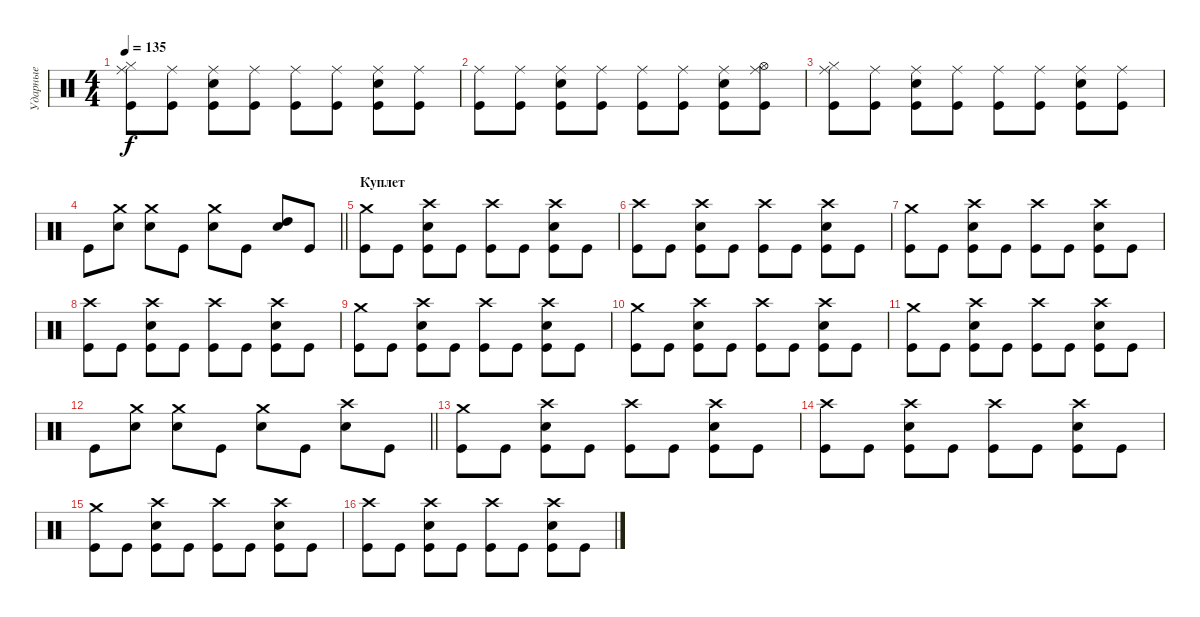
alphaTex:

\track ("Ударные" "Ударные") {instrument percussion}
\staff {score}
\articulation defaults
\ts (4 4)
\tempo 135
\clef neutral
\ks c
("Ride (middle)" "Hi-Hat (closed)" "Kick (hit)").8{dy f} ("Ride (middle)" "Kick (hit)").8 ("Ride (middle)" "Electric Snare (hit)" "Kick (hit)").8 ("Ride (middle)" "Kick (hit)").8 ("Ride (middle)" "Kick (hit)").8 ("Ride (middle)" "Kick (hit)").8 ("Ride (middle)" "Electric Snare (hit)" "Kick (hit)").8 ("Ride (middle)" "Kick (hit)").8 |
("Ride (middle)" "Kick (hit)").8 ("Ride (middle)" "Kick (hit)").8 ("Ride (middle)" "Electric Snare (hit)" "Kick (hit)").8 ("Ride (middle)" "Kick (hit)").8 ("Ride (middle)" "Kick (hit)").8 ("Ride (middle)" "Kick (hit)").8 ("Ride (middle)" "Electric Snare (hit)" "Kick (hit)").8 ("Ride (middle)" "Hi-Hat (open)" "Kick (hit)").8 |
("Ride (middle)" "Hi-Hat (closed)" "Kick (hit)").8 ("Ride (middle)" "Kick (hit)").8 ("Ride (middle)" "Electric Snare (hit)" "Kick (hit)").8 ("Ride (middle)" "Kick (hit)").8 ("Ride (middle)" "Kick (hit)").8 ("Ride (middle)" "Kick (hit)").8 ("Ride (middle)" "Electric Snare (hit)" "Kick (hit)").8 ("Ride (middle)" "Kick (hit)").8 |
\barLineRight lightlight "Kick (hit)".8
("Crash medium (hit)" "Electric Snare (hit)").8 ("Crash medium (hit)" "Electric Snare (hit)").8 "Kick (hit)".8 ("Crash medium (hit)" "Electric Snare (hit)").8 "Kick (hit)".8 ("High Tom (hit)" "Electric Snare (hit)").8 "Kick (hit)".8 |
\section ("" "Куплет")
("Crash medium (hit)" "Kick (hit)").8 "Kick (hit)".8 ("Crash high (hit)" "Electric Snare (hit)" "Kick (hit)").8 "Kick (hit)".8 ("Crash high (hit)" "Kick (hit)").8 "Kick (hit)".8 ("Crash high (hit)" "Electric Snare (hit)" "Kick (hit)").8 "Kick (hit)".8 |
("Crash high (hit)" "Kick (hit)").8 "Kick (hit)".8 ("Crash high (hit)" "Electric Snare (hit)" "Kick (hit)").8 "Kick (hit)".8 ("Crash high (hit)" "Kick (hit)").8 "Kick (hit)".8 ("Crash high (hit)" "Electric Snare (hit)" "Kick (hit)").8 "Kick (hit)".8 |
("Crash medium (hit)" "Kick (hit)").8 "Kick (hit)".8 ("Crash high (hit)" "Electric Snare (hit)" "Kick (hit)").8 "Kick (hit)".8 ("Crash high (hit)" "Kick (hit)").8 "Kick (hit)".8 ("Crash high (hit)" "Electric Snare (hit)" "Kick (hit)").8 "Kick (hit)".8 |
("Crash high (hit)" "Kick (hit)").8 "Kick (hit)".8 ("Crash high (hit)" "Electric Snare (hit)" "Kick (hit)").8 "Kick (hit)".8 ("Crash high (hit)" "Kick (hit)").8 "Kick (hit)".8 ("Crash high (hit)" "Electric Snare (hit)" "Kick (hit)").8 "Kick (hit)".8 |
("Crash medium (hit)" "Kick (hit)").8 "Kick (hit)".8 ("Crash high (hit)" "Electric Snare (hit)" "Kick (hit)").8 "Kick (hit)".8 ("Crash high (hit)" "Kick (hit)").8 "Kick (hit)".8 ("Crash high (hit)" "Electric Snare (hit)" "Kick (hit)").8 "Kick (hit)".8 |
("Crash medium (hit)" "Kick (hit)").8 "Kick (hit)".8 ("Crash high (hit)" "Electric Snare (hit)" "Kick (hit)").8 "Kick (hit)".8 ("Crash high (hit)" "Kick (hit)").8 "Kick (hit)".8 ("Crash high (hit)" "Electric Snare (hit)" "Kick (hit)").8 "Kick (hit)".8 |
("Crash medium (hit)" "Kick (hit)").8 "Kick (hit)".8 ("Crash high (hit)" "Electric Snare (hit)" "Kick (hit)").8 "Kick (hit)".8 ("Crash high (hit)" "Kick (hit)").8 "Kick (hit)".8 ("Crash high (hit)" "Electric Snare (hit)" "Kick (hit)").8 "Kick (hit)".8 |
\barLineRight lightlight "Kick (hit)".8
("Crash medium (hit)" "Electric Snare (hit)").8 ("Crash medium (hit)" "Electric Snare (hit)").8 "Kick (hit)".8 ("Crash medium (hit)" "Electric Snare (hit)").8 "Kick (hit)".8 ("Crash high (hit)" "Electric Snare (hit)").8 "Kick (hit)".8 |
\section ("" " ")
("Crash medium (hit)" "Kick (hit)").8 "Kick (hit)".8 ("Crash high (hit)" "Electric Snare (hit)" "Kick (hit)").8 "Kick (hit)".8 ("Crash high (hit)" "Kick (hit)").8 "Kick (hit)".8 ("Crash high (hit)" "Electric Snare (hit)" "Kick (hit)").8 "Kick (hit)".8 |
("Crash high (hit)" "Kick (hit)").8 "Kick (hit)".8 ("Crash high (hit)" "Electric Snare (hit)" "Kick (hit)").8 "Kick (hit)".8 ("Crash high (hit)" "Kick (hit)").8 "Kick (hit)".8 ("Crash high (hit)" "Electric Snare (hit)" "Kick (hit)").8 "Kick (hit)".8 |
("Crash medium (hit)" "Kick (hit)").8 "Kick (hit)".8 ("Crash high (hit)" "Electric Snare (hit)" "Kick (hit)").8 "Kick (hit)".8 ("Crash high (hit)" "Kick (hit)").8 "Kick (hit)".8 ("Crash high (hit)" "Electric Snare (hit)" "Kick (hit)").8 "Kick (hit)".8 |
("Crash high (hit)" "Kick (hit)").8 "Kick (hit)".8 ("Crash high (hit)" "Electric Snare (hit)" "Kick (hit)").8 "Kick (hit)".8 ("Crash high (hit)" "Kick (hit)").8 "Kick (hit)".8 ("Crash high (hit)" "Electric Snare (hit)" "Kick (hit)").8 "Kick (hit)".8
